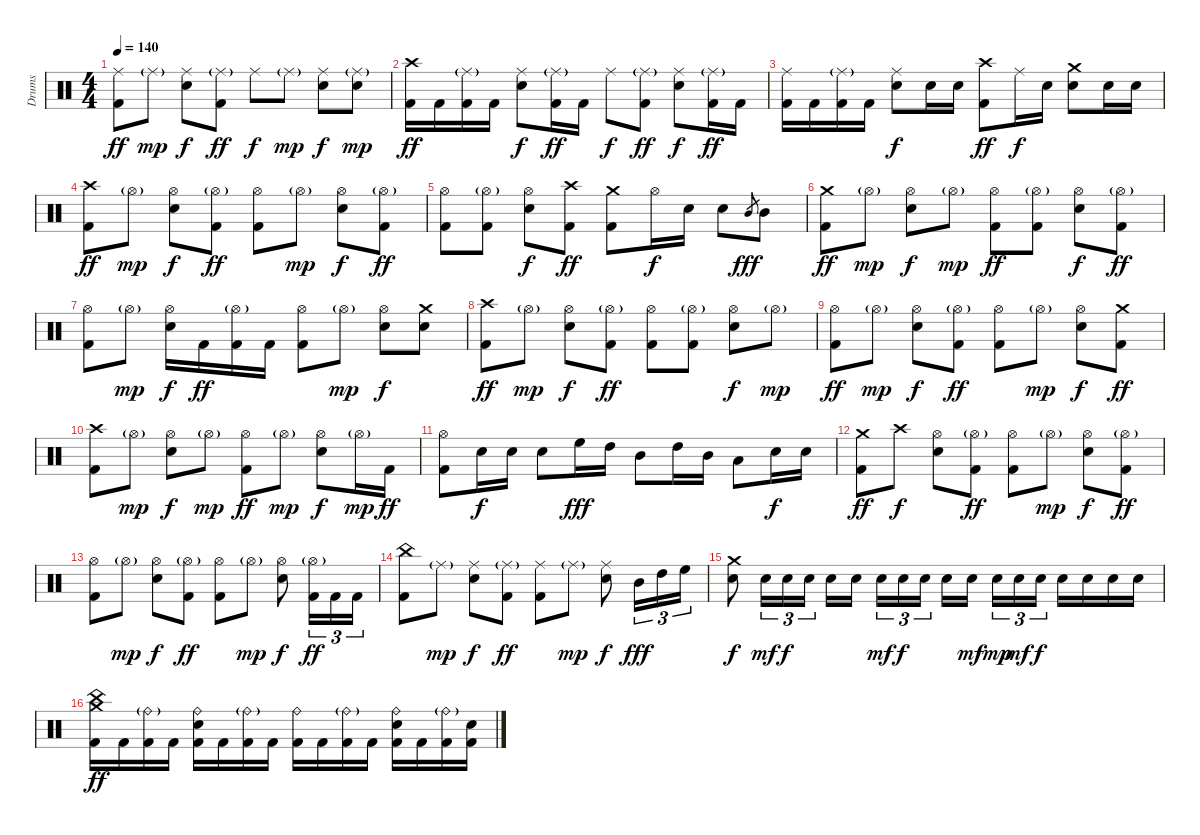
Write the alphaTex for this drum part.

\track ("Drums" "Drums") {instrument percussion}
\staff {score}
\articulation defaults
\ts (4 4)
\tempo 140
\clef neutral
\ks c
("Ride (middle)" "Kick (hit) 2").8{dy ff} "Ride (middle)"{g}.8{dy mp} ("Ride (middle)" "Snare (hit) 2").8{dy f} ("Ride (middle)"{g} "Kick (hit) 2").8{dy ff} "Ride (middle)".8{dy f} "Ride (middle)"{g}.8{dy mp} ("Ride (middle)" "Snare (hit) 2").8{dy f} ("Ride (middle)"{g} "Snare (hit) 2").8{dy mp} |
("Crash high (hit)" "Kick (hit) 2").16{dy ff} "Kick (hit) 2".16 ("Ride (middle)"{g} "Kick (hit) 2").16 "Kick (hit) 2".16 ("Ride (middle)" "Snare (hit) 2").8{dy f} ("Ride (middle)"{g} "Kick (hit) 2").16{dy ff} "Kick (hit) 2".16 "Ride (middle)".8{dy f} ("Ride (middle)"{g} "Kick (hit) 2").8{dy ff} ("Ride (middle)" "Snare (hit) 2").8{dy f} ("Ride (middle)"{g} "Kick (hit) 2").16{dy ff} "Kick (hit) 2".16 |
("Ride (middle)" "Kick (hit) 2").16 "Kick (hit) 2".16 ("Ride (middle)"{g} "Kick (hit) 2").16 "Kick (hit) 2".16 ("Ride (middle)" "Snare (hit) 2").8{dy f} "Snare (hit) 2".16 "Snare (hit) 2".16 ("Crash high (hit)" "Kick (hit) 2").8{dy ff} "Ride (middle)".16{dy f} "Snare (hit) 2".16 ("Crash medium (hit)" "Snare (hit) 2").8 "Snare (hit) 2".16 "Snare (hit) 2".16 |
("Crash high (hit)" "Kick (hit) 2").8{dy ff} "Hi-Hat (open)"{g}.8{dy mp} ("Hi-Hat (open)" "Snare (hit) 2").8{dy f} ("Hi-Hat (open)"{g} "Kick (hit) 2").8{dy ff} ("Hi-Hat (open)" "Kick (hit) 2").8 "Hi-Hat (open)"{g}.8{dy mp} ("Hi-Hat (open)" "Snare (hit) 2").8{dy f} ("Hi-Hat (open)"{g} "Kick (hit) 2").8{dy ff} |
("Hi-Hat (open)" "Kick (hit) 2").8 ("Hi-Hat (open)"{g} "Kick (hit) 2").8 ("Hi-Hat (open)" "Snare (hit) 2").8{dy f} ("Crash high (hit)" "Kick (hit) 2").8{dy ff} ("Crash medium (hit)" "Kick (hit) 2").8 "Hi-Hat (open)".16{dy f} "Snare (hit) 2".16 "Snare (hit) 2".8 "Mid Tom (hit)".8{gr dy fff} "Mid Tom (hit)".8 |
("Crash medium (hit)" "Kick (hit) 2").8{dy ff} "Hi-Hat (open)"{g}.8{dy mp} ("Hi-Hat (open)" "Snare (hit) 2").8{dy f} "Hi-Hat (open)"{g}.8{dy mp} ("Hi-Hat (open)" "Kick (hit) 2").8{dy ff} ("Hi-Hat (open)"{g} "Kick (hit) 2").8 ("Hi-Hat (open)" "Snare (hit) 2").8{dy f} ("Hi-Hat (open)"{g} "Kick (hit) 2").8{dy ff} |
("Hi-Hat (open)" "Kick (hit) 2").8 "Hi-Hat (open)"{g}.8{dy mp} ("Hi-Hat (open)" "Snare (hit) 2").16{dy f} "Kick (hit) 2".16{dy ff} ("Hi-Hat (open)"{g} "Kick (hit) 2").16 "Kick (hit) 2".16 ("Hi-Hat (open)" "Kick (hit) 2").8 "Hi-Hat (open)"{g}.8{dy mp} ("Hi-Hat (open)" "Snare (hit) 2").8{dy f} ("Crash medium (hit)" "Snare (hit) 2").8 |
("Crash high (hit)" "Kick (hit) 2").8{dy ff} "Hi-Hat (open)"{g}.8{dy mp} ("Hi-Hat (open)" "Snare (hit) 2").8{dy f} ("Hi-Hat (open)"{g} "Kick (hit) 2").8{dy ff} ("Hi-Hat (open)" "Kick (hit) 2").8 ("Hi-Hat (open)"{g} "Kick (hit) 2").8 ("Hi-Hat (open)" "Snare (hit) 2").8{dy f} "Hi-Hat (open)"{g}.8{dy mp} |
("Hi-Hat (open)" "Kick (hit) 2").8{dy ff} "Hi-Hat (open)"{g}.8{dy mp} ("Hi-Hat (open)" "Snare (hit) 2").8{dy f} ("Hi-Hat (open)"{g} "Kick (hit) 2").8{dy ff} ("Hi-Hat (open)" "Kick (hit) 2").8 "Hi-Hat (open)"{g}.8{dy mp} ("Hi-Hat (open)" "Snare (hit) 2").8{dy f} ("Crash medium (hit)" "Kick (hit) 2").8{dy ff} |
("Crash high (hit)" "Kick (hit) 2").8 "Hi-Hat (open)"{g}.8{dy mp} ("Hi-Hat (open)" "Snare (hit) 2").8{dy f} "Hi-Hat (open)"{g}.8{dy mp} ("Hi-Hat (open)" "Kick (hit) 2").8{dy ff} "Hi-Hat (open)"{g}.8{dy mp} ("Hi-Hat (open)" "Snare (hit) 2").8{dy f} "Hi-Hat (open)"{g}.16{dy mp} "Kick (hit) 2".16{dy ff} |
("Hi-Hat (open)" "Kick (hit) 2").8 "Snare (hit) 2".16{dy f} "Snare (hit) 2".16 "Snare (hit) 2".8 "High Floor Tom (hit)".16{dy fff} "High Tom (hit)".16 "Mid Tom (hit)".8 "High Tom (hit)".16 "Mid Tom (hit)".16 "Low Tom (hit)".8 "Snare (hit) 2".16{dy f} "Snare (hit) 2".16 |
("Crash medium (hit)" "Kick (hit) 2").8{dy ff} "Crash high (hit)".8{dy f} ("Hi-Hat (open)" "Snare (hit) 2").8 ("Hi-Hat (open)"{g} "Kick (hit) 2").8{dy ff} ("Hi-Hat (open)" "Kick (hit) 2").8 "Hi-Hat (open)"{g}.8{dy mp} ("Hi-Hat (open)" "Snare (hit) 2").8{dy f} ("Hi-Hat (open)"{g} "Kick (hit) 2").8{dy ff} |
("Hi-Hat (open)" "Kick (hit) 2").8 "Hi-Hat (open)"{g}.8{dy mp} ("Hi-Hat (open)" "Snare (hit) 2").8{dy f} ("Hi-Hat (open)"{g} "Kick (hit) 2").8{dy ff} ("Hi-Hat (open)" "Kick (hit) 2").8 "Hi-Hat (open)"{g}.8{dy mp} ("Hi-Hat (open)" "Snare (hit) 2").8{dy f} ("Hi-Hat (open)"{g} "Kick (hit) 2").16{tu (3 2) dy ff} "Kick (hit) 2".16{tu (3 2)} "Kick (hit) 2".16{tu (3 2)} |
("China (hit)" "Kick (hit) 2").8 "Ride (middle)"{g}.8{dy mp} ("Ride (middle)" "Snare (hit) 2").8{dy f} ("Ride (middle)"{g} "Kick (hit) 2").8{dy ff} ("Ride (middle)" "Kick (hit) 2").8 "Ride (middle)"{g}.8{dy mp} ("Ride (middle)" "Snare (hit) 2").8{dy f} "Mid Tom (hit)".16{tu (3 2) dy fff} "High Tom (hit)".16{tu (3 2)} "High Floor Tom (hit)".16{tu (3 2)} |
("Crash medium (hit)" "Snare (hit) 2").8{dy f} "Snare (hit) 2".16{tu (3 2) dy mf} "Snare (hit) 2".16{tu (3 2) dy f} "Snare (hit) 2".16{tu (3 2)} "Snare (hit) 2".16 "Snare (hit) 2".16 "Snare (hit) 2".16{tu (3 2) dy mf} "Snare (hit) 2".16{tu (3 2) dy f} "Snare (hit) 2".16{tu (3 2)} "Snare (hit) 2".16 "Snare (hit) 2".16{dy mf} "Snare (hit) 2".16{tu (3 2) dy mp} "Snare (hit) 2".16{tu (3 2) dy mf} "Snare (hit) 2".16{tu (3 2) dy f} "Snare (hit) 2".16 "Snare (hit) 2".16 "Snare (hit) 2".16 "Snare (hit) 2".16 |
("China (hit)" "Crash medium (hit)" "Kick (hit) 2").16{dy ff} "Kick (hit) 2".16 ("Ride (bell)"{g} "Kick (hit) 2").16 "Kick (hit) 2".16 ("Ride (bell)" "Snare (hit) 2" "Kick (hit) 2").16 "Kick (hit) 2".16 ("Ride (bell)"{g} "Kick (hit) 2").16 "Kick (hit) 2".16 ("Ride (bell)" "Kick (hit) 2").16 "Kick (hit) 2".16 ("Ride (bell)"{g} "Kick (hit) 2").16 "Kick (hit) 2".16 ("Ride (bell)" "Snare (hit) 2" "Kick (hit) 2").16 "Kick (hit) 2".16 ("Ride (bell)"{g} "Kick (hit) 2").16 ("Snare (hit) 2" "Kick (hit) 2").16
